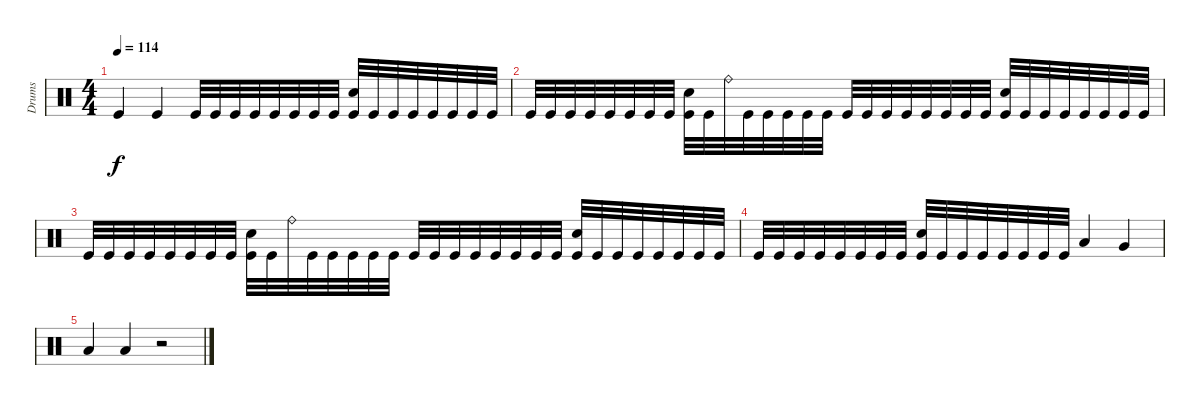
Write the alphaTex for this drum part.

\track ("Drums" "Drums") {instrument percussion}
\staff {score}
\articulation defaults
\ts (4 4)
\tempo 114
\clef neutral
\ks c "Kick (hit)".4{dy f} "Kick (hit)".4 "Kick (hit)".32 "Kick (hit)".32 "Kick (hit)".32 "Kick (hit)".32 "Kick (hit)".32 "Kick (hit)".32 "Kick (hit)".32 "Kick (hit)".32
("Snare (hit) 2" "Kick (hit)").32 "Kick (hit)".32 "Kick (hit)".32 "Kick (hit)".32 "Kick (hit)".32 "Kick (hit)".32 "Kick (hit)".32 "Kick (hit)".32 |
"Kick (hit)".32 "Kick (hit)".32 "Kick (hit)".32 "Kick (hit)".32 "Kick (hit)".32 "Kick (hit)".32 "Kick (hit)".32 "Kick (hit)".32 ("Snare (hit) 2" "Kick (hit)").32 "Kick (hit)".32 "Ride (bell)".32 "Kick (hit)".32 "Kick (hit)".32 "Kick (hit)".32 "Kick (hit)".32 "Kick (hit)".32 "Kick (hit)".32 "Kick (hit)".32 "Kick (hit)".32 "Kick (hit)".32 "Kick (hit)".32 "Kick (hit)".32 "Kick (hit)".32 "Kick (hit)".32 ("Snare (hit) 2" "Kick (hit)").32 "Kick (hit)".32 "Kick (hit)".32 "Kick (hit)".32 "Kick (hit)".32 "Kick (hit)".32 "Kick (hit)".32 "Kick (hit)".32 |
"Kick (hit)".32 "Kick (hit)".32 "Kick (hit)".32 "Kick (hit)".32 "Kick (hit)".32 "Kick (hit)".32 "Kick (hit)".32 "Kick (hit)".32 ("Snare (hit) 2" "Kick (hit)").32 "Kick (hit)".32 "Ride (bell)".32 "Kick (hit)".32 "Kick (hit)".32 "Kick (hit)".32 "Kick (hit)".32 "Kick (hit)".32 "Kick (hit)".32 "Kick (hit)".32 "Kick (hit)".32 "Kick (hit)".32 "Kick (hit)".32 "Kick (hit)".32 "Kick (hit)".32 "Kick (hit)".32 ("Snare (hit) 2" "Kick (hit)").32 "Kick (hit)".32 "Kick (hit)".32 "Kick (hit)".32 "Kick (hit)".32 "Kick (hit)".32 "Kick (hit)".32 "Kick (hit)".32 |
"Kick (hit)".32 "Kick (hit)".32 "Kick (hit)".32 "Kick (hit)".32 "Kick (hit)".32 "Kick (hit)".32 "Kick (hit)".32 "Kick (hit)".32 ("Snare (hit) 2" "Kick (hit)").32 "Kick (hit)".32 "Kick (hit)".32 "Kick (hit)".32 "Kick (hit)".32 "Kick (hit)".32 "Kick (hit)".32 "Kick (hit)".32 "Low Tom (hit)".4 "Very Low Tom (hit)".4 |
"Low Floor Tom (hit)".4 "Low Floor Tom (hit)".4 r.2
